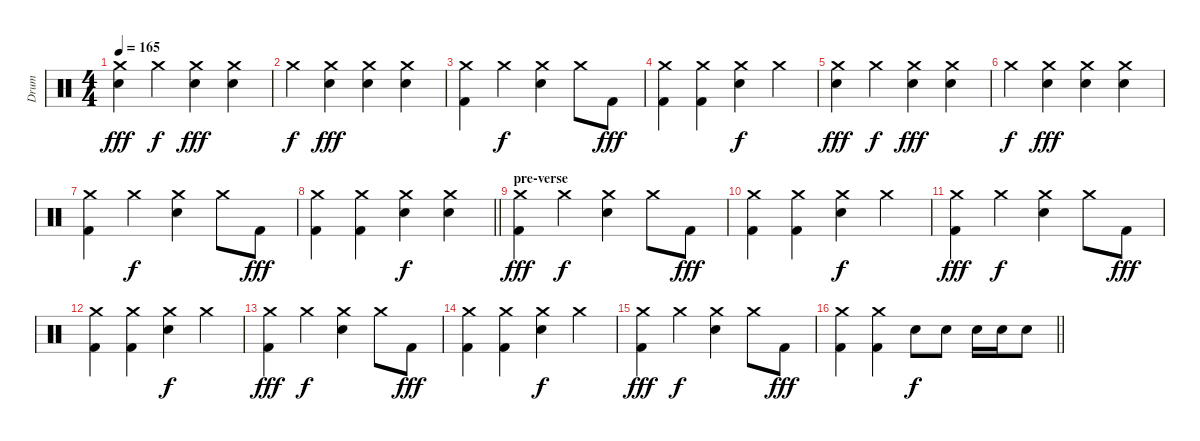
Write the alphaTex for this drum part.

\track ("Drum" "Drum") {instrument percussion}
\staff {score}
\articulation defaults
\ts (4 4)
\tempo 165
\clef neutral
\ks c
("Snare (hit) 2" "Crash medium (hit)").4{dy fff} "Crash medium (hit)".4{dy f} ("Snare (hit) 2" "Crash medium (hit)").4{dy fff} ("Snare (hit) 2" "Crash medium (hit)").4 |
"Crash medium (hit)".4{dy f} ("Snare (hit) 2" "Crash medium (hit)").4{dy fff} ("Snare (hit) 2" "Crash medium (hit)").4 ("Snare (hit) 2" "Crash medium (hit)").4 |
("Kick (hit) 2" "Crash medium (hit)").4 "Crash medium (hit)".4{dy f} ("Snare (hit) 2" "Crash medium (hit)").4 "Crash medium (hit)".8 "Kick (hit) 2".8{dy fff} |
("Kick (hit) 2" "Crash medium (hit)").4 ("Kick (hit) 2" "Crash medium (hit)").4 ("Snare (hit) 2" "Crash medium (hit)").4{dy f} "Crash medium (hit)".4 |
("Snare (hit) 2" "Crash medium (hit)").4{dy fff} "Crash medium (hit)".4{dy f} ("Snare (hit) 2" "Crash medium (hit)").4{dy fff} ("Snare (hit) 2" "Crash medium (hit)").4 |
"Crash medium (hit)".4{dy f} ("Snare (hit) 2" "Crash medium (hit)").4{dy fff} ("Snare (hit) 2" "Crash medium (hit)").4 ("Snare (hit) 2" "Crash medium (hit)").4 |
("Kick (hit) 2" "Crash medium (hit)").4 "Crash medium (hit)".4{dy f} ("Snare (hit) 2" "Crash medium (hit)").4 "Crash medium (hit)".8 "Kick (hit) 2".8{dy fff} |
\barLineRight lightlight
("Kick (hit) 2" "Crash medium (hit)").4 ("Kick (hit) 2" "Crash medium (hit)").4 ("Snare (hit) 2" "Crash medium (hit)").4{dy f} ("Snare (hit) 2" "Crash medium (hit)").4 |
\section ("" "pre-verse")
("Kick (hit) 2" "Crash medium (hit)").4{dy fff} "Crash medium (hit)".4{dy f} ("Snare (hit) 2" "Crash medium (hit)").4 "Crash medium (hit)".8 "Kick (hit) 2".8{dy fff} |
("Kick (hit) 2" "Crash medium (hit)").4 ("Kick (hit) 2" "Crash medium (hit)").4 ("Snare (hit) 2" "Crash medium (hit)").4{dy f} "Crash medium (hit)".4 |
("Kick (hit) 2" "Crash medium (hit)").4{dy fff} "Crash medium (hit)".4{dy f} ("Snare (hit) 2" "Crash medium (hit)").4 "Crash medium (hit)".8 "Kick (hit) 2".8{dy fff} |
("Kick (hit) 2" "Crash medium (hit)").4 ("Kick (hit) 2" "Crash medium (hit)").4 ("Snare (hit) 2" "Crash medium (hit)").4{dy f} "Crash medium (hit)".4 |
("Kick (hit) 2" "Crash medium (hit)").4{dy fff} "Crash medium (hit)".4{dy f} ("Snare (hit) 2" "Crash medium (hit)").4 "Crash medium (hit)".8 "Kick (hit) 2".8{dy fff} |
("Kick (hit) 2" "Crash medium (hit)").4 ("Kick (hit) 2" "Crash medium (hit)").4 ("Snare (hit) 2" "Crash medium (hit)").4{dy f} "Crash medium (hit)".4 |
("Kick (hit) 2" "Crash medium (hit)").4{dy fff} "Crash medium (hit)".4{dy f} ("Snare (hit) 2" "Crash medium (hit)").4 "Crash medium (hit)".8 "Kick (hit) 2".8{dy fff} |
\barLineRight lightlight
("Kick (hit) 2" "Crash medium (hit)").4 ("Kick (hit) 2" "Crash medium (hit)").4 "Snare (hit) 2".8{dy f} "Snare (hit) 2".8 "Snare (hit) 2".16 "Snare (hit) 2".16 "Snare (hit) 2".8
